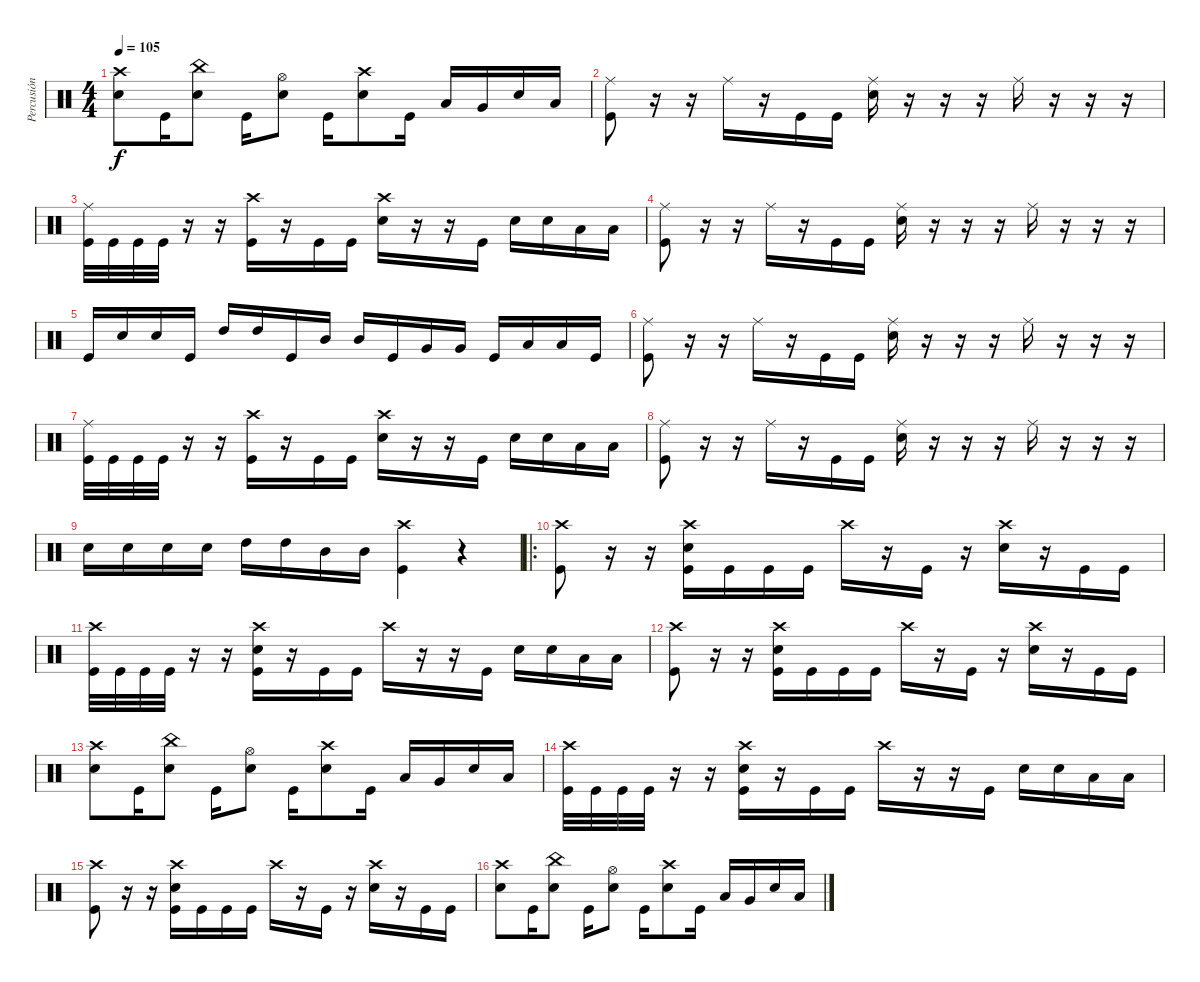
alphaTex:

\track ("Percusión" "Percusión") {instrument percussion}
\staff {score}
\articulation defaults
\ts (4 4)
\tempo 105
\clef neutral
\ks c
("Crash high (hit)" "Snare (hit) 2").8{dy f} "Kick (hit)".16 ("China (hit)" "Snare (hit) 2").8 "Kick (hit)".16 ("Hi-Hat (open)" "Snare (hit) 2").8 "Kick (hit)".16 ("Crash high (hit)" "Snare (hit) 2").8 "Kick (hit)".16 "Low Floor Tom (hit)".16 "Very Low Tom (hit)".16 "Snare (hit) 2".16 "Low Floor Tom (hit)".16 |
("Ride (middle)" "Kick (hit)").8 r.16 r.16 "Ride (middle)".16 r.16 "Kick (hit)".16 "Kick (hit)".16 ("Ride (middle)" "Snare (hit) 2").16 r.16 r.16 r.16 "Ride (middle)".16 r.16 r.16 r.16 |
("Ride (middle)" "Kick (hit)").32 "Kick (hit)".32 "Kick (hit)".32 "Kick (hit)".32 r.16 r.16 ("Crash high (hit)" "Kick (hit)").16 r.16 "Kick (hit)".16 "Kick (hit)".16 ("Crash high (hit)" "Snare (hit) 2").16 r.16 r.16 "Kick (hit)".16 "Snare (hit) 2".16 "Snare (hit) 2".16 "Low Floor Tom (hit)".16 "Low Floor Tom (hit)".16 |
("Ride (middle)" "Kick (hit)").8 r.16 r.16 "Ride (middle)".16 r.16 "Kick (hit)".16 "Kick (hit)".16 ("Ride (middle)" "Snare (hit) 2").16 r.16 r.16 r.16 "Ride (middle)".16 r.16 r.16 r.16 |
"Kick (hit)".16 "Snare (hit) 2".16 "Snare (hit) 2".16 "Kick (hit)".16 "High Tom (hit)".16 "High Tom (hit)".16 "Kick (hit)".16 "Mid Tom (hit)".16 "Mid Tom (hit)".16 "Kick (hit)".16 "Very Low Tom (hit)".16 "Very Low Tom (hit)".16 "Kick (hit)".16 "Low Floor Tom (hit)".16 "Low Floor Tom (hit)".16 "Kick (hit)".16 |
("Ride (middle)" "Kick (hit)").8 r.16 r.16 "Ride (middle)".16 r.16 "Kick (hit)".16 "Kick (hit)".16 ("Ride (middle)" "Snare (hit) 2").16 r.16 r.16 r.16 "Ride (middle)".16 r.16 r.16 r.16 |
("Ride (middle)" "Kick (hit)").32 "Kick (hit)".32 "Kick (hit)".32 "Kick (hit)".32 r.16 r.16 ("Crash high (hit)" "Kick (hit)").16 r.16 "Kick (hit)".16 "Kick (hit)".16 ("Crash high (hit)" "Snare (hit) 2").16 r.16 r.16 "Kick (hit)".16 "Snare (hit) 2".16 "Snare (hit) 2".16 "Low Floor Tom (hit)".16 "Low Floor Tom (hit)".16 |
("Ride (middle)" "Kick (hit)").8 r.16 r.16 "Ride (middle)".16 r.16 "Kick (hit)".16 "Kick (hit)".16 ("Ride (middle)" "Snare (hit) 2").16 r.16 r.16 r.16 "Ride (middle)".16 r.16 r.16 r.16 |
"Snare (hit) 2".16 "Snare (hit) 2".16 "Snare (hit) 2".16 "Snare (hit) 2".16 "High Tom (hit)".16 "High Tom (hit)".16 "Mid Tom (hit)".16 "Mid Tom (hit)".16 ("Crash high (hit)" "Kick (hit)").4 r.4 |
\ro
("Crash high (hit)" "Kick (hit)").8 r.16 r.16 ("Crash high (hit)" "Snare (hit) 2" "Kick (hit)").16 "Kick (hit)".16 "Kick (hit)".16 "Kick (hit)".16 "Crash high (hit)".16 r.16 "Kick (hit)".16 r.16 ("Crash high (hit)" "Snare (hit) 2").16 r.16 "Kick (hit)".16 "Kick (hit)".16 |
("Crash high (hit)" "Kick (hit)").32 "Kick (hit)".32 "Kick (hit)".32 "Kick (hit)".32 r.16 r.16 ("Crash high (hit)" "Snare (hit) 2" "Kick (hit)").16 r.16 "Kick (hit)".16 "Kick (hit)".16 "Crash high (hit)".16 r.16 r.16 "Kick (hit)".16 "Snare (hit) 2".16 "Snare (hit) 2".16 "Low Floor Tom (hit)".16 "Low Floor Tom (hit)".16 |
("Crash high (hit)" "Kick (hit)").8 r.16 r.16 ("Crash high (hit)" "Snare (hit) 2" "Kick (hit)").16 "Kick (hit)".16 "Kick (hit)".16 "Kick (hit)".16 "Crash high (hit)".16 r.16 "Kick (hit)".16 r.16 ("Crash high (hit)" "Snare (hit) 2").16 r.16 "Kick (hit)".16 "Kick (hit)".16 |
("Crash high (hit)" "Snare (hit) 2").8 "Kick (hit)".16 ("China (hit)" "Snare (hit) 2").8 "Kick (hit)".16 ("Hi-Hat (open)" "Snare (hit) 2").8 "Kick (hit)".16 ("Crash high (hit)" "Snare (hit) 2").8 "Kick (hit)".16 "Low Floor Tom (hit)".16 "Very Low Tom (hit)".16 "Snare (hit) 2".16 "Low Floor Tom (hit)".16 |
("Crash high (hit)" "Kick (hit)").32 "Kick (hit)".32 "Kick (hit)".32 "Kick (hit)".32 r.16 r.16 ("Crash high (hit)" "Snare (hit) 2" "Kick (hit)").16 r.16 "Kick (hit)".16 "Kick (hit)".16 "Crash high (hit)".16 r.16 r.16 "Kick (hit)".16 "Snare (hit) 2".16 "Snare (hit) 2".16 "Low Floor Tom (hit)".16 "Low Floor Tom (hit)".16 |
("Crash high (hit)" "Kick (hit)").8 r.16 r.16 ("Crash high (hit)" "Snare (hit) 2" "Kick (hit)").16 "Kick (hit)".16 "Kick (hit)".16 "Kick (hit)".16 "Crash high (hit)".16 r.16 "Kick (hit)".16 r.16 ("Crash high (hit)" "Snare (hit) 2").16 r.16 "Kick (hit)".16 "Kick (hit)".16 |
("Crash high (hit)" "Snare (hit) 2").8 "Kick (hit)".16 ("China (hit)" "Snare (hit) 2").8 "Kick (hit)".16 ("Hi-Hat (open)" "Snare (hit) 2").8 "Kick (hit)".16 ("Crash high (hit)" "Snare (hit) 2").8 "Kick (hit)".16 "Low Floor Tom (hit)".16 "Very Low Tom (hit)".16 "Snare (hit) 2".16 "Low Floor Tom (hit)".16
